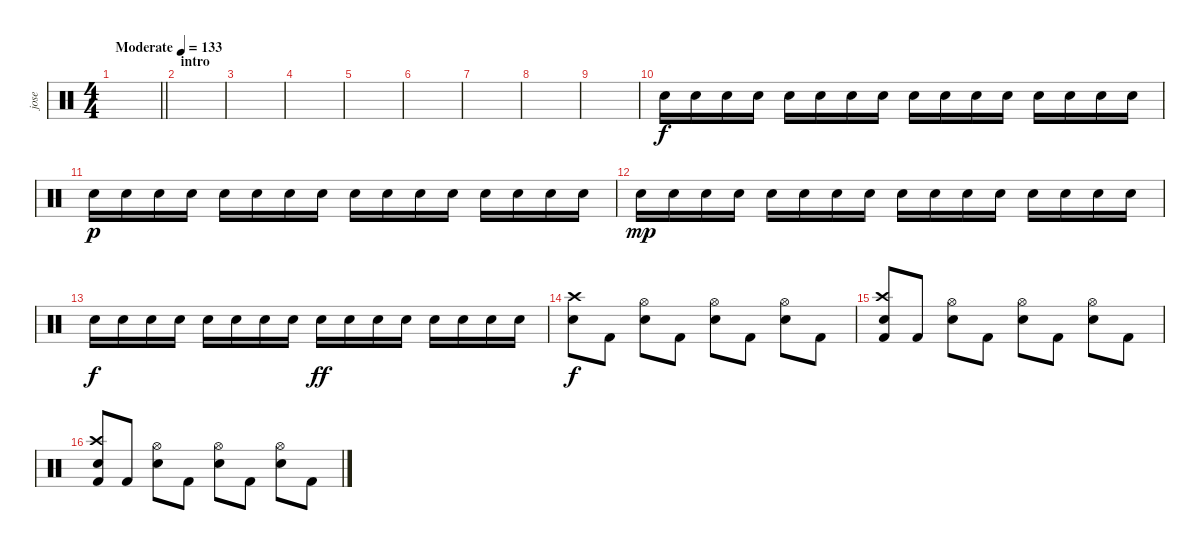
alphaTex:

\track ("jose" "jose") {instrument percussion}
\staff {score}
\articulation defaults
\ts (4 4)
\tempo (133 "Moderate")
\clef neutral
\barLineRight lightlight
\ks c
|
\section ("" "intro")
|
|
|
|
|
|
|
|
"Snare (hit) 2".16 "Snare (hit) 2".16 "Snare (hit) 2".16 "Snare (hit) 2".16 "Snare (hit) 2".16 "Snare (hit) 2".16 "Snare (hit) 2".16 "Snare (hit) 2".16 "Snare (hit) 2".16 "Snare (hit) 2".16 "Snare (hit) 2".16 "Snare (hit) 2".16 "Snare (hit) 2".16 "Snare (hit) 2".16 "Snare (hit) 2".16 "Snare (hit) 2".16 |
"Snare (hit) 2".16{dy p} "Snare (hit) 2".16 "Snare (hit) 2".16 "Snare (hit) 2".16 "Snare (hit) 2".16 "Snare (hit) 2".16 "Snare (hit) 2".16 "Snare (hit) 2".16 "Snare (hit) 2".16 "Snare (hit) 2".16 "Snare (hit) 2".16 "Snare (hit) 2".16 "Snare (hit) 2".16 "Snare (hit) 2".16 "Snare (hit) 2".16 "Snare (hit) 2".16 |
"Snare (hit) 2".16{dy mp} "Snare (hit) 2".16 "Snare (hit) 2".16 "Snare (hit) 2".16 "Snare (hit) 2".16 "Snare (hit) 2".16 "Snare (hit) 2".16 "Snare (hit) 2".16 "Snare (hit) 2".16 "Snare (hit) 2".16 "Snare (hit) 2".16 "Snare (hit) 2".16 "Snare (hit) 2".16 "Snare (hit) 2".16 "Snare (hit) 2".16 "Snare (hit) 2".16 |
"Snare (hit) 2".16{dy f} "Snare (hit) 2".16 "Snare (hit) 2".16 "Snare (hit) 2".16 "Snare (hit) 2".16 "Snare (hit) 2".16 "Snare (hit) 2".16 "Snare (hit) 2".16 "Snare (hit) 2".16{dy ff} "Snare (hit) 2".16 "Snare (hit) 2".16 "Snare (hit) 2".16 "Snare (hit) 2".16 "Snare (hit) 2".16 "Snare (hit) 2".16 "Snare (hit) 2".16 |
("Crash high (hit)" "Snare (hit) 2").8{dy f} "Kick (hit) 2".8 ("Hi-Hat (open)" "Snare (hit) 2").8 "Kick (hit) 2".8 ("Hi-Hat (open)" "Snare (hit) 2").8 "Kick (hit) 2".8 ("Hi-Hat (open)" "Snare (hit) 2").8 "Kick (hit) 2".8 |
("Crash high (hit)" "Snare (hit) 2" "Kick (hit) 2").8 "Kick (hit) 2".8 ("Hi-Hat (open)" "Snare (hit) 2").8 "Kick (hit) 2".8 ("Hi-Hat (open)" "Snare (hit) 2").8 "Kick (hit) 2".8 ("Hi-Hat (open)" "Snare (hit) 2").8 "Kick (hit) 2".8 |
("Crash high (hit)" "Snare (hit) 2" "Kick (hit) 2").8 "Kick (hit) 2".8 ("Hi-Hat (open)" "Snare (hit) 2").8 "Kick (hit) 2".8 ("Hi-Hat (open)" "Snare (hit) 2").8 "Kick (hit) 2".8 ("Hi-Hat (open)" "Snare (hit) 2").8 "Kick (hit) 2".8
